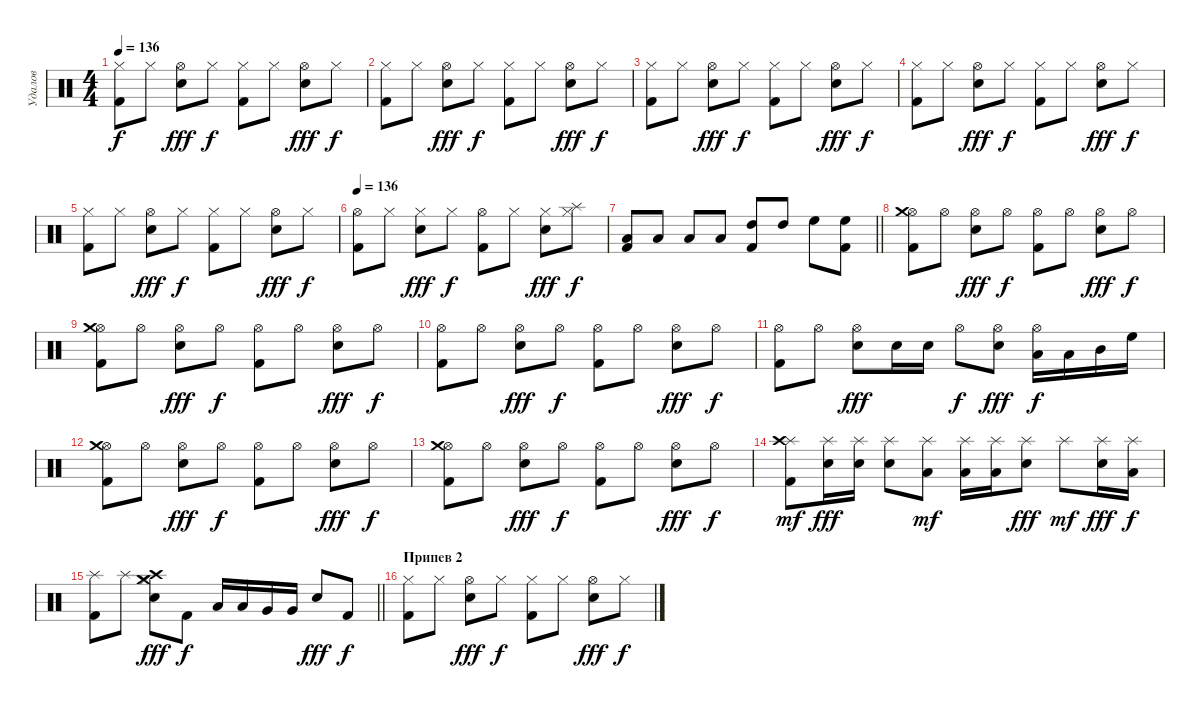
\track ("Удалов" "Удалов") {instrument percussion}
\staff {score}
\articulation defaults
\ts (4 4)
\tempo 136
\clef neutral
\ks c
("Hi-Hat (closed)" "Kick (hit) 2").8{dy f} "Hi-Hat (closed)".8 ("Hi-Hat (open)" "Snare (hit) 2").8{dy fff} "Hi-Hat (closed)".8{dy f} ("Hi-Hat (closed)" "Kick (hit) 2").8 "Hi-Hat (closed)".8 ("Hi-Hat (open)" "Snare (hit) 2").8{dy fff} "Hi-Hat (closed)".8{dy f} |
("Hi-Hat (closed)" "Kick (hit) 2").8 "Hi-Hat (closed)".8 ("Hi-Hat (open)" "Snare (hit) 2").8{dy fff} "Hi-Hat (closed)".8{dy f} ("Hi-Hat (closed)" "Kick (hit) 2").8 "Hi-Hat (closed)".8 ("Hi-Hat (open)" "Snare (hit) 2").8{dy fff} "Hi-Hat (closed)".8{dy f} |
("Hi-Hat (closed)" "Kick (hit) 2").8 "Hi-Hat (closed)".8 ("Hi-Hat (open)" "Snare (hit) 2").8{dy fff} "Hi-Hat (closed)".8{dy f} ("Hi-Hat (closed)" "Kick (hit) 2").8 "Hi-Hat (closed)".8 ("Hi-Hat (open)" "Snare (hit) 2").8{dy fff} "Hi-Hat (closed)".8{dy f} |
("Hi-Hat (closed)" "Kick (hit) 2").8 "Hi-Hat (closed)".8 ("Hi-Hat (open)" "Snare (hit) 2").8{dy fff} "Hi-Hat (closed)".8{dy f} ("Hi-Hat (closed)" "Kick (hit) 2").8 "Hi-Hat (closed)".8 ("Hi-Hat (open)" "Snare (hit) 2").8{dy fff} "Hi-Hat (closed)".8{dy f} |
("Hi-Hat (closed)" "Kick (hit) 2").8 "Hi-Hat (closed)".8 ("Hi-Hat (open)" "Snare (hit) 2").8{dy fff} "Hi-Hat (closed)".8{dy f} ("Hi-Hat (closed)" "Kick (hit) 2").8 "Hi-Hat (closed)".8 ("Hi-Hat (open)" "Snare (hit) 2").8{dy fff} "Hi-Hat (closed)".8{dy f} |
\tempo 136
("Hi-Hat (open)" "Kick (hit) 2").8 "Hi-Hat (closed)".8 ("Hi-Hat (closed)" "Snare (hit) 2").8{dy fff} "Hi-Hat (closed)".8{dy f} ("Hi-Hat (open)" "Kick (hit) 2").8 "Hi-Hat (closed)".8 ("Hi-Hat (closed)" "Snare (hit) 2").8{dy fff} ("Hi-Hat (closed)" "Splash (hit)").8{dy f} |
\barLineRight lightlight
("Kick (hit) 2" "Low Floor Tom (hit)").8 "Low Floor Tom (hit)".8 "Low Tom (hit)".8 "Low Tom (hit)".8 ("High Tom (hit)" "Kick (hit) 2").8 "High Tom (hit)".8 "High Floor Tom (hit)".8 ("High Floor Tom (hit)" "Kick (hit) 2").8 |
("Hi-Hat (open)" "Kick (hit) 2" "Crash medium (hit)").8 "Hi-Hat (open)".8 ("Hi-Hat (open)" "Snare (hit) 2").8{dy fff} "Hi-Hat (open)".8{dy f} ("Hi-Hat (open)" "Kick (hit) 2").8 "Hi-Hat (open)".8 ("Hi-Hat (open)" "Snare (hit) 2").8{dy fff} "Hi-Hat (open)".8{dy f} |
("Hi-Hat (open)" "Kick (hit) 2" "Crash medium (hit)").8 "Hi-Hat (open)".8 ("Hi-Hat (open)" "Snare (hit) 2").8{dy fff} "Hi-Hat (open)".8{dy f} ("Hi-Hat (open)" "Kick (hit) 2").8 "Hi-Hat (open)".8 ("Hi-Hat (open)" "Snare (hit) 2").8{dy fff} "Hi-Hat (open)".8{dy f} |
("Hi-Hat (open)" "Kick (hit) 2").8 "Hi-Hat (open)".8 ("Hi-Hat (open)" "Snare (hit) 2").8{dy fff} "Hi-Hat (open)".8{dy f} ("Hi-Hat (open)" "Kick (hit) 2").8 "Hi-Hat (open)".8 ("Hi-Hat (open)" "Snare (hit) 2").8{dy fff} "Hi-Hat (open)".8{dy f} |
("Hi-Hat (open)" "Kick (hit) 2").8 "Hi-Hat (open)".8 ("Hi-Hat (open)" "Snare (hit) 2").8{dy fff} "Snare (hit) 2".16 "Snare (hit) 2".16 "Hi-Hat (open)".8{dy f} ("Hi-Hat (open)" "Snare (hit) 2").8{dy fff} ("Hi-Hat (open)" "Low Floor Tom (hit)").16{dy f} "Low Tom (hit)".16 "Mid Tom (hit)".16 "High Floor Tom (hit)".16 |
("Hi-Hat (open)" "Kick (hit) 2" "Crash medium (hit)").8 "Hi-Hat (open)".8 ("Hi-Hat (open)" "Snare (hit) 2").8{dy fff} "Hi-Hat (open)".8{dy f} ("Hi-Hat (open)" "Kick (hit) 2").8 "Hi-Hat (open)".8 ("Hi-Hat (open)" "Snare (hit) 2").8{dy fff} "Hi-Hat (open)".8{dy f} |
("Hi-Hat (open)" "Kick (hit) 2" "Crash medium (hit)").8 "Hi-Hat (open)".8 ("Hi-Hat (open)" "Snare (hit) 2").8{dy fff} "Hi-Hat (open)".8{dy f} ("Hi-Hat (open)" "Kick (hit) 2").8 "Hi-Hat (open)".8 ("Hi-Hat (open)" "Snare (hit) 2").8{dy fff} "Hi-Hat (open)".8{dy f} |
("Splash (hit)" "Crash high (hit)" "Kick (hit) 2").8{dy mf} ("Splash (hit)" "Snare (hit) 2").16{dy fff} ("Splash (hit)" "Snare (hit) 2").16 ("Splash (hit)" "Snare (hit) 2").8 ("Splash (hit)" "Low Floor Tom (hit)").8{dy mf} ("Splash (hit)" "Low Floor Tom (hit)").16 ("Splash (hit)" "Low Tom (hit)").16 ("Splash (hit)" "Snare (hit) 2").8{dy fff} "Splash (hit)".8{dy mf} ("Splash (hit)" "Snare (hit) 2").16{dy fff} ("Splash (hit)" "Low Tom (hit)").16{dy f} |
\barLineRight lightlight
("Splash (hit)" "Kick (hit) 2").8 "Splash (hit)".8 ("Hi-Hat (closed)" "Snare (hit) 2" "Crash high (hit)" "Crash medium (hit)").8{dy fff} "Kick (hit) 2".8{dy f} "Low Floor Tom (hit)".16 "Low Floor Tom (hit)".16 "Very Low Tom (hit)".16 "Very Low Tom (hit)".16 "Snare (hit) 2".8{dy fff} "Kick (hit) 2".8{dy f} |
\section ("" "Припев 2")
("Hi-Hat (closed)" "Kick (hit) 2").8 "Hi-Hat (closed)".8 ("Hi-Hat (open)" "Snare (hit) 2").8{dy fff} "Hi-Hat (closed)".8{dy f} ("Hi-Hat (closed)" "Kick (hit) 2").8 "Hi-Hat (closed)".8 ("Hi-Hat (open)" "Snare (hit) 2").8{dy fff} "Hi-Hat (closed)".8{dy f}
